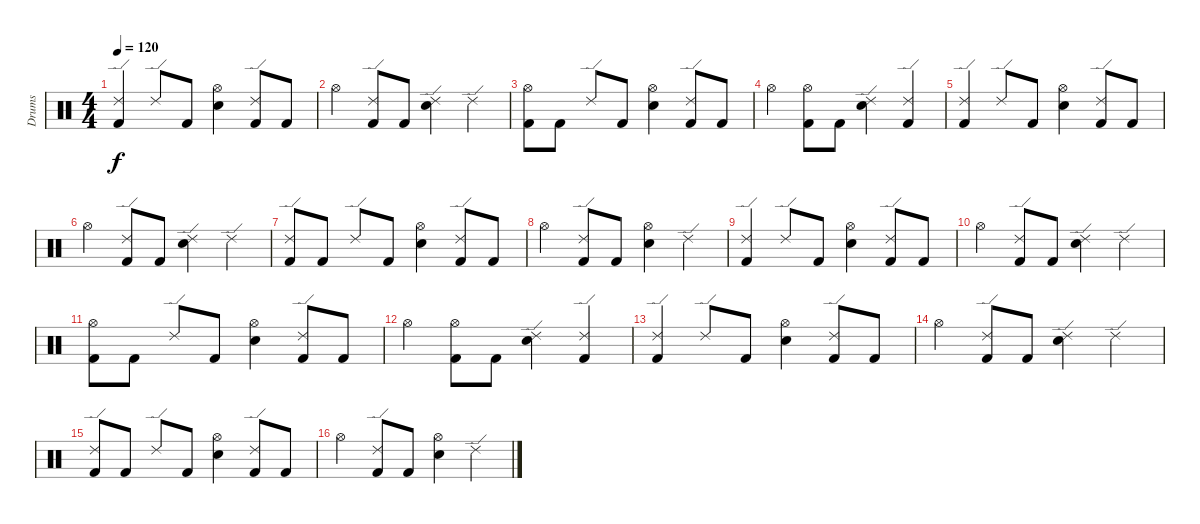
\track ("Drums" "Drums") {instrument percussion}
\staff {score}
\articulation defaults
\ts (4 4)
\tempo 120
\clef neutral
\ks c
("Ride (edge) 2" "Kick (hit) 2").4{dy f} "Ride (edge) 2".8 "Kick (hit) 2".8 ("Hi-Hat (open)" "Snare (hit) 2").4 ("Ride (edge) 2" "Kick (hit) 2").8 "Kick (hit) 2".8 |
"Hi-Hat (open)".4 ("Ride (edge) 2" "Kick (hit) 2").8 "Kick (hit) 2".8 ("Ride (edge) 2" "Snare (hit) 2").4 "Ride (edge) 2".4 |
("Hi-Hat (open)" "Kick (hit) 2").8 "Kick (hit) 2".8 "Ride (edge) 2".8 "Kick (hit) 2".8 ("Hi-Hat (open)" "Snare (hit) 2").4 ("Ride (edge) 2" "Kick (hit) 2").8 "Kick (hit) 2".8 |
"Hi-Hat (open)".4 ("Hi-Hat (open)" "Kick (hit) 2").8 "Kick (hit) 2".8 ("Ride (edge) 2" "Snare (hit) 2").4 ("Ride (edge) 2" "Kick (hit) 2").4 |
("Ride (edge) 2" "Kick (hit) 2").4 "Ride (edge) 2".8 "Kick (hit) 2".8 ("Hi-Hat (open)" "Snare (hit) 2").4 ("Ride (edge) 2" "Kick (hit) 2").8 "Kick (hit) 2".8 |
"Hi-Hat (open)".4 ("Ride (edge) 2" "Kick (hit) 2").8 "Kick (hit) 2".8 ("Ride (edge) 2" "Snare (hit) 2").4 "Ride (edge) 2".4 |
("Ride (edge) 2" "Kick (hit) 2").8 "Kick (hit) 2".8 "Ride (edge) 2".8 "Kick (hit) 2".8 ("Hi-Hat (open)" "Snare (hit) 2").4 ("Ride (edge) 2" "Kick (hit) 2").8 "Kick (hit) 2".8 |
"Hi-Hat (open)".4 ("Ride (edge) 2" "Kick (hit) 2").8 "Kick (hit) 2".8 ("Hi-Hat (open)" "Snare (hit) 2").4 "Ride (edge) 2".4 |
("Ride (edge) 2" "Kick (hit) 2").4 "Ride (edge) 2".8 "Kick (hit) 2".8 ("Hi-Hat (open)" "Snare (hit) 2").4 ("Ride (edge) 2" "Kick (hit) 2").8 "Kick (hit) 2".8 |
"Hi-Hat (open)".4 ("Ride (edge) 2" "Kick (hit) 2").8 "Kick (hit) 2".8 ("Ride (edge) 2" "Snare (hit) 2").4 "Ride (edge) 2".4 |
("Hi-Hat (open)" "Kick (hit) 2").8 "Kick (hit) 2".8 "Ride (edge) 2".8 "Kick (hit) 2".8 ("Hi-Hat (open)" "Snare (hit) 2").4 ("Ride (edge) 2" "Kick (hit) 2").8 "Kick (hit) 2".8 |
"Hi-Hat (open)".4 ("Hi-Hat (open)" "Kick (hit) 2").8 "Kick (hit) 2".8 ("Ride (edge) 2" "Snare (hit) 2").4 ("Ride (edge) 2" "Kick (hit) 2").4 |
("Ride (edge) 2" "Kick (hit) 2").4 "Ride (edge) 2".8 "Kick (hit) 2".8 ("Hi-Hat (open)" "Snare (hit) 2").4 ("Ride (edge) 2" "Kick (hit) 2").8 "Kick (hit) 2".8 |
"Hi-Hat (open)".4 ("Ride (edge) 2" "Kick (hit) 2").8 "Kick (hit) 2".8 ("Ride (edge) 2" "Snare (hit) 2").4 "Ride (edge) 2".4 |
("Ride (edge) 2" "Kick (hit) 2").8 "Kick (hit) 2".8 "Ride (edge) 2".8 "Kick (hit) 2".8 ("Hi-Hat (open)" "Snare (hit) 2").4 ("Ride (edge) 2" "Kick (hit) 2").8 "Kick (hit) 2".8 |
"Hi-Hat (open)".4 ("Ride (edge) 2" "Kick (hit) 2").8 "Kick (hit) 2".8 ("Hi-Hat (open)" "Snare (hit) 2").4 "Ride (edge) 2".4
